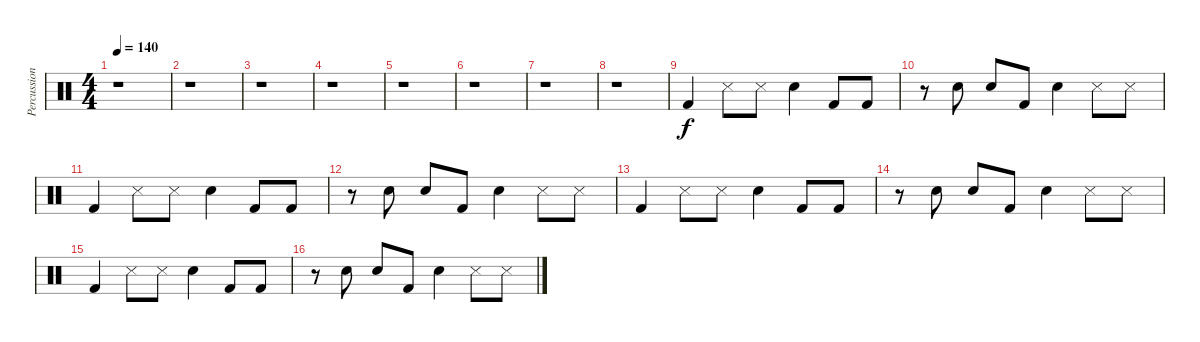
\track ("Percussions" "Percussion") {instrument percussion}
\staff {score}
\articulation defaults
\ts (4 4)
\tempo 140
\clef neutral
\ks c
r.1{dy f} |
r.1 |
r.1 |
r.1 |
r.1 |
r.1 |
r.1 |
r.1 |
"Kick (hit) 2".4 "Snare (side stick) 3".8 "Snare (side stick) 3".8 "Electric Snare (hit)".4 "Kick (hit) 2".8 "Kick (hit) 2".8 |
r.8 "Electric Snare (hit)".8 "Snare (hit) 2".8 "Kick (hit) 2".8 "Electric Snare (hit)".4 "Snare (side stick) 3".8 "Snare (side stick) 3".8 |
"Kick (hit) 2".4 "Snare (side stick) 3".8 "Snare (side stick) 3".8 "Electric Snare (hit)".4 "Kick (hit) 2".8 "Kick (hit) 2".8 |
r.8 "Electric Snare (hit)".8 "Snare (hit) 2".8 "Kick (hit) 2".8 "Electric Snare (hit)".4 "Snare (side stick) 3".8 "Snare (side stick) 3".8 |
"Kick (hit) 2".4 "Snare (side stick) 3".8 "Snare (side stick) 3".8 "Electric Snare (hit)".4 "Kick (hit) 2".8 "Kick (hit) 2".8 |
r.8 "Electric Snare (hit)".8 "Snare (hit) 2".8 "Kick (hit) 2".8 "Electric Snare (hit)".4 "Snare (side stick) 3".8 "Snare (side stick) 3".8 |
"Kick (hit) 2".4 "Snare (side stick) 3".8 "Snare (side stick) 3".8 "Electric Snare (hit)".4 "Kick (hit) 2".8 "Kick (hit) 2".8 |
r.8 "Electric Snare (hit)".8 "Snare (hit) 2".8 "Kick (hit) 2".8 "Electric Snare (hit)".4 "Snare (side stick) 3".8 "Snare (side stick) 3".8
